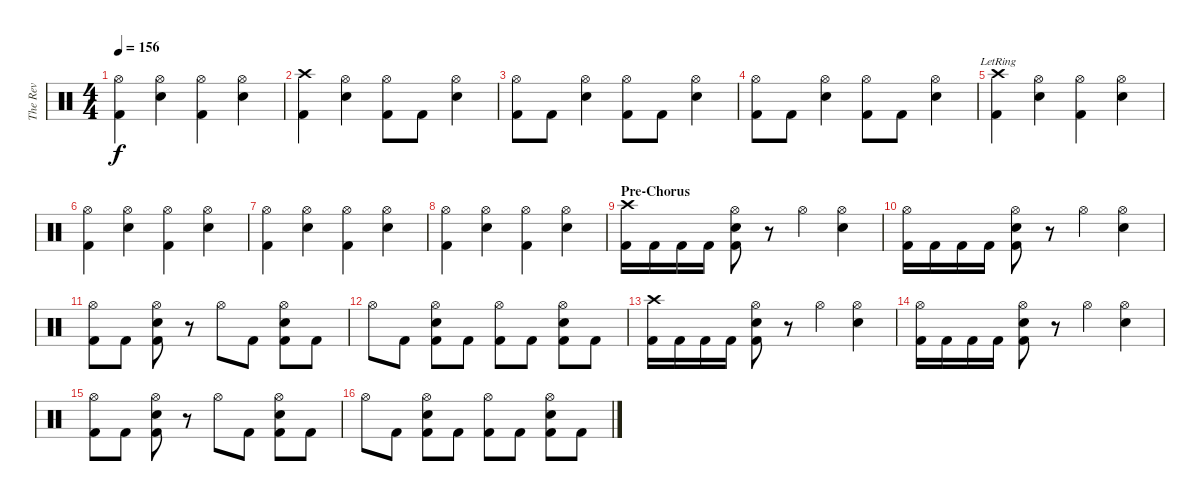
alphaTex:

\track ("The Rev" "The Rev") {instrument percussion}
\staff {score}
\articulation defaults
\ts (4 4)
\tempo 156
\clef neutral
\ks c
("Hi-Hat (open)" "Kick (hit) 2").4{dy f} ("Hi-Hat (open)" "Electric Snare (hit)").4 ("Hi-Hat (open)" "Kick (hit) 2").4 ("Hi-Hat (open)" "Electric Snare (hit)").4 |
("Crash high (hit)" "Kick (hit) 2").4 ("Hi-Hat (open)" "Electric Snare (hit)").4 ("Hi-Hat (open)" "Kick (hit) 2").8 "Kick (hit) 2".8 ("Hi-Hat (open)" "Electric Snare (hit)").4 |
("Hi-Hat (open)" "Kick (hit) 2").8 "Kick (hit) 2".8 ("Hi-Hat (open)" "Electric Snare (hit)").4 ("Hi-Hat (open)" "Kick (hit) 2").8 "Kick (hit) 2".8 ("Hi-Hat (open)" "Electric Snare (hit)").4 |
("Hi-Hat (open)" "Kick (hit) 2").8 "Kick (hit) 2".8 ("Hi-Hat (open)" "Electric Snare (hit)").4 ("Hi-Hat (open)" "Kick (hit) 2").8 "Kick (hit) 2".8 ("Hi-Hat (open)" "Electric Snare (hit)").4 |
("Crash high (hit)" "Kick (hit) 2"{lr}).4 ("Hi-Hat (open)" "Electric Snare (hit)").4 ("Hi-Hat (open)" "Kick (hit) 2").4 ("Hi-Hat (open)" "Electric Snare (hit)").4 |
("Hi-Hat (open)" "Kick (hit) 2").4 ("Hi-Hat (open)" "Electric Snare (hit)").4 ("Hi-Hat (open)" "Kick (hit) 2").4 ("Hi-Hat (open)" "Electric Snare (hit)").4 |
("Hi-Hat (open)" "Kick (hit) 2").4 ("Hi-Hat (open)" "Electric Snare (hit)").4 ("Hi-Hat (open)" "Kick (hit) 2").4 ("Hi-Hat (open)" "Electric Snare (hit)").4 |
("Hi-Hat (open)" "Kick (hit) 2").4 ("Hi-Hat (open)" "Electric Snare (hit)").4 ("Hi-Hat (open)" "Kick (hit) 2").4 ("Hi-Hat (open)" "Electric Snare (hit)").4 |
\section ("" "Pre-Chorus")
("Crash high (hit)" "Kick (hit) 2").16 "Kick (hit) 2".16 "Kick (hit) 2".16 "Kick (hit) 2".16 ("Hi-Hat (open)" "Electric Snare (hit)" "Kick (hit) 2").8 r.8 "Hi-Hat (open)".4 ("Hi-Hat (open)" "Electric Snare (hit)").4 |
("Hi-Hat (open)" "Kick (hit) 2").16 "Kick (hit) 2".16 "Kick (hit) 2".16 "Kick (hit) 2".16 ("Hi-Hat (open)" "Electric Snare (hit)" "Kick (hit) 2").8 r.8 "Hi-Hat (open)".4 ("Hi-Hat (open)" "Electric Snare (hit)").4 |
("Hi-Hat (open)" "Kick (hit) 2").8 "Kick (hit) 2".8 ("Hi-Hat (open)" "Electric Snare (hit)" "Kick (hit) 2").8 r.8 "Hi-Hat (open)".8 "Kick (hit) 2".8 ("Hi-Hat (open)" "Electric Snare (hit)" "Kick (hit) 2").8 "Kick (hit) 2".8 |
"Hi-Hat (open)".8 "Kick (hit) 2".8 ("Hi-Hat (open)" "Electric Snare (hit)" "Kick (hit) 2").8 "Kick (hit) 2".8 ("Hi-Hat (open)" "Kick (hit) 2").8 "Kick (hit) 2".8 ("Hi-Hat (open)" "Electric Snare (hit)" "Kick (hit) 2").8 "Kick (hit) 2".8 |
("Crash high (hit)" "Kick (hit) 2").16 "Kick (hit) 2".16 "Kick (hit) 2".16 "Kick (hit) 2".16 ("Hi-Hat (open)" "Electric Snare (hit)" "Kick (hit) 2").8 r.8 "Hi-Hat (open)".4 ("Hi-Hat (open)" "Electric Snare (hit)").4 |
("Hi-Hat (open)" "Kick (hit) 2").16 "Kick (hit) 2".16 "Kick (hit) 2".16 "Kick (hit) 2".16 ("Hi-Hat (open)" "Electric Snare (hit)" "Kick (hit) 2").8 r.8 "Hi-Hat (open)".4 ("Hi-Hat (open)" "Electric Snare (hit)").4 |
("Hi-Hat (open)" "Kick (hit) 2").8 "Kick (hit) 2".8 ("Hi-Hat (open)" "Electric Snare (hit)" "Kick (hit) 2").8 r.8 "Hi-Hat (open)".8 "Kick (hit) 2".8 ("Hi-Hat (open)" "Electric Snare (hit)" "Kick (hit) 2").8 "Kick (hit) 2".8 |
"Hi-Hat (open)".8 "Kick (hit) 2".8 ("Hi-Hat (open)" "Electric Snare (hit)" "Kick (hit) 2").8 "Kick (hit) 2".8 ("Hi-Hat (open)" "Kick (hit) 2").8 "Kick (hit) 2".8 ("Hi-Hat (open)" "Electric Snare (hit)" "Kick (hit) 2").8 "Kick (hit) 2".8
